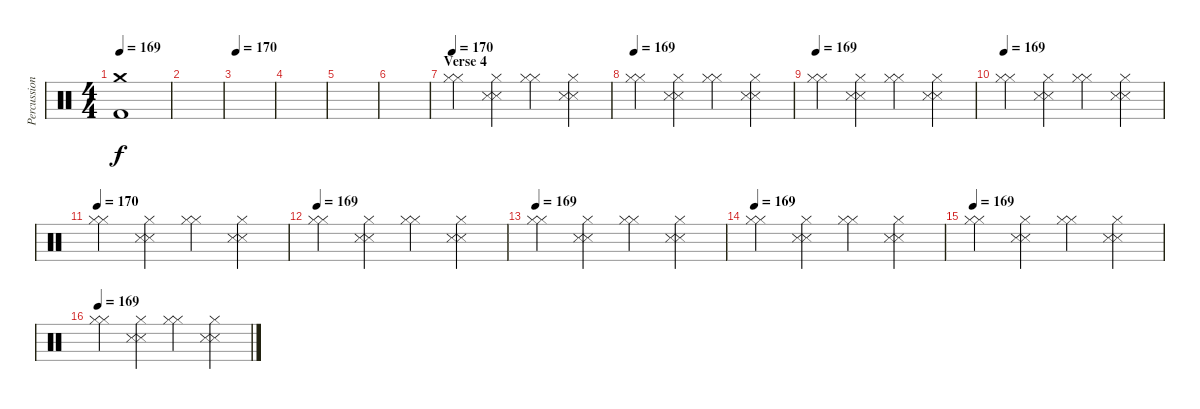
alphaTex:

\track ("Percussion" "Percussion") {instrument percussion}
\staff {score}
\articulation defaults
\ts (4 4)
\tempo 169
\clef neutral
\ks c
("Crash medium (hit)" "Kick (hit) 2").1{dy f} |
|
\tempo 170
|
|
|
|
\section ("" "Verse 4")
\tempo 169
\tempo 170
("Hi-Hat (closed)" "Hi-Hat (closed)").4 ("Hi-Hat (closed)" "Snare (side stick) 3" "Snare (side stick) 3").4 ("Hi-Hat (closed)" "Hi-Hat (closed)").4 ("Hi-Hat (closed)" "Snare (side stick) 3" "Snare (side stick) 3").4 |
\tempo 169
("Hi-Hat (closed)" "Hi-Hat (closed)").4 ("Hi-Hat (closed)" "Snare (side stick) 3" "Snare (side stick) 3").4 ("Hi-Hat (closed)" "Hi-Hat (closed)").4 ("Hi-Hat (closed)" "Snare (side stick) 3" "Snare (side stick) 3").4 |
\tempo 169
("Hi-Hat (closed)" "Hi-Hat (closed)").4 ("Hi-Hat (closed)" "Snare (side stick) 3" "Snare (side stick) 3").4 ("Hi-Hat (closed)" "Hi-Hat (closed)").4 ("Hi-Hat (closed)" "Snare (side stick) 3" "Snare (side stick) 3").4 |
\tempo 169
("Hi-Hat (closed)" "Hi-Hat (closed)").4 ("Hi-Hat (closed)" "Snare (side stick) 3" "Snare (side stick) 3").4 ("Hi-Hat (closed)" "Hi-Hat (closed)").4 ("Hi-Hat (closed)" "Snare (side stick) 3" "Snare (side stick) 3").4 |
\tempo 169
\tempo 170
("Hi-Hat (closed)" "Hi-Hat (closed)").4 ("Hi-Hat (closed)" "Snare (side stick) 3" "Snare (side stick) 3").4 ("Hi-Hat (closed)" "Hi-Hat (closed)").4 ("Hi-Hat (closed)" "Snare (side stick) 3" "Snare (side stick) 3").4 |
\tempo 169
("Hi-Hat (closed)" "Hi-Hat (closed)").4 ("Hi-Hat (closed)" "Snare (side stick) 3" "Snare (side stick) 3").4 ("Hi-Hat (closed)" "Hi-Hat (closed)").4 ("Hi-Hat (closed)" "Snare (side stick) 3" "Snare (side stick) 3").4 |
\tempo 169
("Hi-Hat (closed)" "Hi-Hat (closed)").4 ("Hi-Hat (closed)" "Snare (side stick) 3" "Snare (side stick) 3").4 ("Hi-Hat (closed)" "Hi-Hat (closed)").4 ("Hi-Hat (closed)" "Snare (side stick) 3" "Snare (side stick) 3").4 |
\tempo 169
("Hi-Hat (closed)" "Hi-Hat (closed)").4 ("Hi-Hat (closed)" "Snare (side stick) 3" "Snare (side stick) 3").4 ("Hi-Hat (closed)" "Hi-Hat (closed)").4 ("Hi-Hat (closed)" "Snare (side stick) 3" "Snare (side stick) 3").4 |
\tempo 169
("Hi-Hat (closed)" "Hi-Hat (closed)").4 ("Hi-Hat (closed)" "Snare (side stick) 3" "Snare (side stick) 3").4 ("Hi-Hat (closed)" "Hi-Hat (closed)").4 ("Hi-Hat (closed)" "Snare (side stick) 3" "Snare (side stick) 3").4 |
\tempo 169
("Hi-Hat (closed)" "Hi-Hat (closed)").4 ("Hi-Hat (closed)" "Snare (side stick) 3" "Snare (side stick) 3").4 ("Hi-Hat (closed)" "Hi-Hat (closed)").4 ("Hi-Hat (closed)" "Snare (side stick) 3" "Snare (side stick) 3").4
